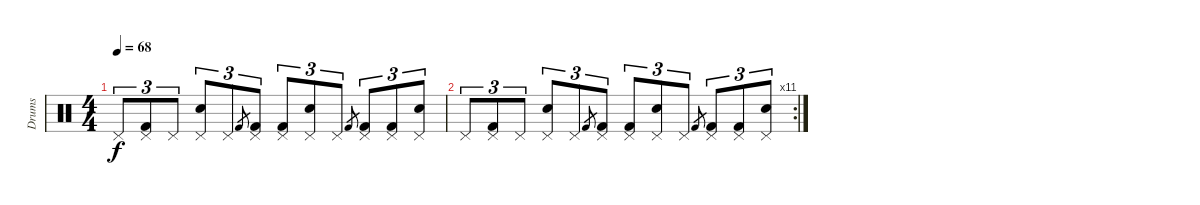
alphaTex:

\track ("Drums" "Drums") {instrument percussion}
\staff {score}
\articulation defaults
\ts (4 4)
\tempo 68
\clef neutral
\ks c "Pedal Hi-Hat (hit)".8{tu (3 2) dy f}
("Pedal Hi-Hat (hit)" "Kick (hit) 2").8{tu (3 2)} "Pedal Hi-Hat (hit)".8{tu (3 2)} ("Pedal Hi-Hat (hit)" "Electric Snare (hit)").8{tu (3 2)} "Pedal Hi-Hat (hit)".8{tu (3 2)} "Kick (hit) 2".8{gr} ("Pedal Hi-Hat (hit)" "Kick (hit) 2").8{tu (3 2)} ("Pedal Hi-Hat (hit)" "Kick (hit) 2").8{tu (3 2)} ("Pedal Hi-Hat (hit)" "Electric Snare (hit)").8{tu (3 2)} "Pedal Hi-Hat (hit)".8{tu (3 2)} "Kick (hit) 2".8{gr} ("Pedal Hi-Hat (hit)" "Kick (hit) 2").8{tu (3 2)} ("Pedal Hi-Hat (hit)" "Kick (hit) 2").8{tu (3 2)} ("Pedal Hi-Hat (hit)" "Electric Snare (hit)").8{tu (3 2)} |
\rc 11 "Pedal Hi-Hat (hit)".8{tu (3 2)}
("Pedal Hi-Hat (hit)" "Kick (hit) 2").8{tu (3 2)} "Pedal Hi-Hat (hit)".8{tu (3 2)} ("Pedal Hi-Hat (hit)" "Electric Snare (hit)").8{tu (3 2)} "Pedal Hi-Hat (hit)".8{tu (3 2)} "Kick (hit) 2".8{gr} ("Pedal Hi-Hat (hit)" "Kick (hit) 2").8{tu (3 2)} ("Pedal Hi-Hat (hit)" "Kick (hit) 2").8{tu (3 2)} ("Pedal Hi-Hat (hit)" "Electric Snare (hit)").8{tu (3 2)} "Pedal Hi-Hat (hit)".8{tu (3 2)} "Kick (hit) 2".8{gr} ("Pedal Hi-Hat (hit)" "Kick (hit) 2").8{tu (3 2)} ("Pedal Hi-Hat (hit)" "Kick (hit) 2").8{tu (3 2)} ("Pedal Hi-Hat (hit)" "Electric Snare (hit)").8{tu (3 2)}
